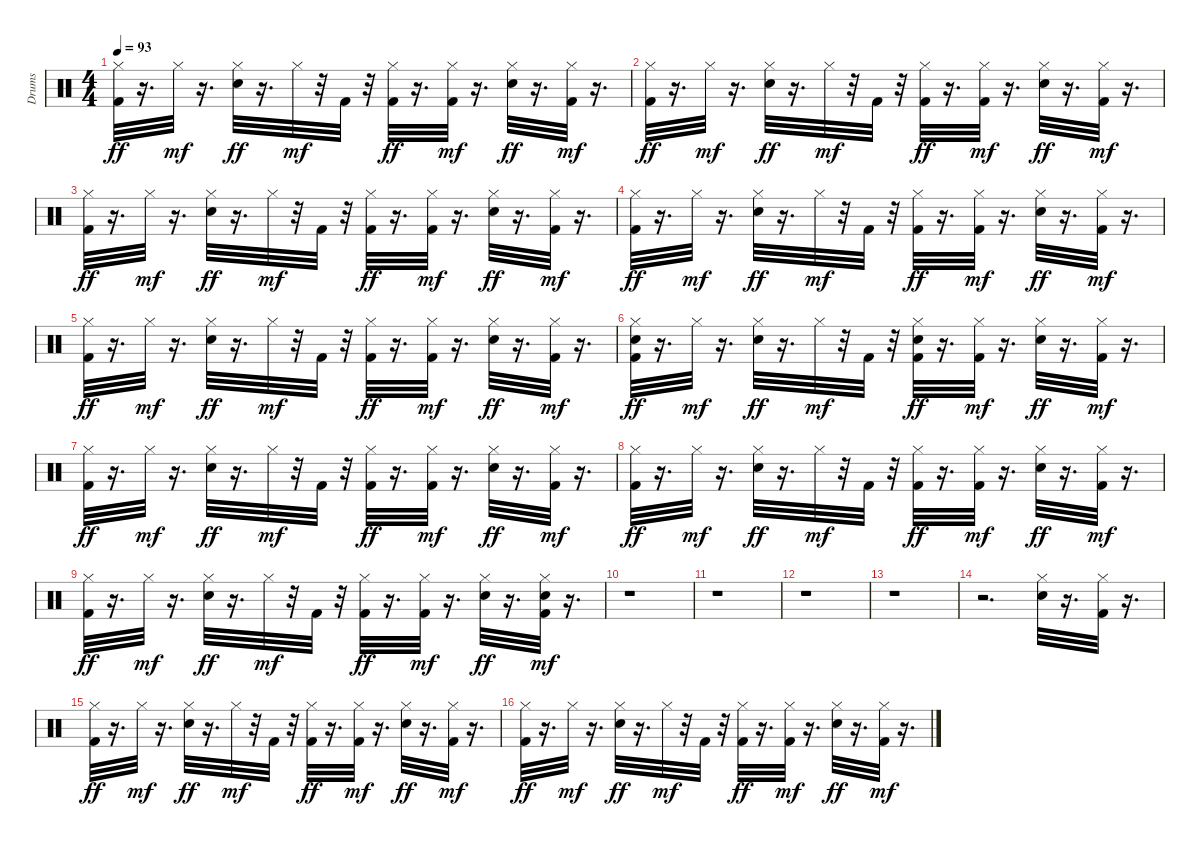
\track ("Drums" "Drums") {instrument percussion}
\staff {score}
\articulation defaults
\ts (4 4)
\tempo 93
\clef neutral
\ks c
("Kick (hit) 2" "Hi-Hat (closed)").32{dy ff} r.16{d} "Hi-Hat (closed)".32{dy mf} r.16{d} ("Snare (hit) 2" "Hi-Hat (closed)").32{dy ff} r.16{d} "Hi-Hat (closed)".32{dy mf} r.32 "Kick (hit) 2".32 r.32 ("Kick (hit) 2" "Hi-Hat (closed)").32{dy ff} r.16{d} ("Kick (hit) 2" "Hi-Hat (closed)").32{dy mf} r.16{d} ("Snare (hit) 2" "Hi-Hat (closed)").32{dy ff} r.16{d} ("Kick (hit) 2" "Hi-Hat (closed)").32{dy mf} r.16{d} |
("Kick (hit) 2" "Hi-Hat (closed)").32{dy ff} r.16{d} "Hi-Hat (closed)".32{dy mf} r.16{d} ("Snare (hit) 2" "Hi-Hat (closed)").32{dy ff} r.16{d} "Hi-Hat (closed)".32{dy mf} r.32 "Kick (hit) 2".32 r.32 ("Kick (hit) 2" "Hi-Hat (closed)").32{dy ff} r.16{d} ("Kick (hit) 2" "Hi-Hat (closed)").32{dy mf} r.16{d} ("Snare (hit) 2" "Hi-Hat (closed)").32{dy ff} r.16{d} ("Kick (hit) 2" "Hi-Hat (closed)").32{dy mf} r.16{d} |
("Kick (hit) 2" "Hi-Hat (closed)").32{dy ff} r.16{d} "Hi-Hat (closed)".32{dy mf} r.16{d} ("Snare (hit) 2" "Hi-Hat (closed)").32{dy ff} r.16{d} "Hi-Hat (closed)".32{dy mf} r.32 "Kick (hit) 2".32 r.32 ("Kick (hit) 2" "Hi-Hat (closed)").32{dy ff} r.16{d} ("Kick (hit) 2" "Hi-Hat (closed)").32{dy mf} r.16{d} ("Snare (hit) 2" "Hi-Hat (closed)").32{dy ff} r.16{d} ("Kick (hit) 2" "Hi-Hat (closed)").32{dy mf} r.16{d} |
("Kick (hit) 2" "Hi-Hat (closed)").32{dy ff} r.16{d} "Hi-Hat (closed)".32{dy mf} r.16{d} ("Snare (hit) 2" "Hi-Hat (closed)").32{dy ff} r.16{d} "Hi-Hat (closed)".32{dy mf} r.32 "Kick (hit) 2".32 r.32 ("Kick (hit) 2" "Hi-Hat (closed)").32{dy ff} r.16{d} ("Kick (hit) 2" "Hi-Hat (closed)").32{dy mf} r.16{d} ("Snare (hit) 2" "Hi-Hat (closed)").32{dy ff} r.16{d} ("Kick (hit) 2" "Hi-Hat (closed)").32{dy mf} r.16{d} |
("Kick (hit) 2" "Hi-Hat (closed)").32{dy ff} r.16{d} "Hi-Hat (closed)".32{dy mf} r.16{d} ("Snare (hit) 2" "Hi-Hat (closed)").32{dy ff} r.16{d} "Hi-Hat (closed)".32{dy mf} r.32 "Kick (hit) 2".32 r.32 ("Kick (hit) 2" "Hi-Hat (closed)").32{dy ff} r.16{d} ("Kick (hit) 2" "Hi-Hat (closed)").32{dy mf} r.16{d} ("Snare (hit) 2" "Hi-Hat (closed)").32{dy ff} r.16{d} ("Kick (hit) 2" "Hi-Hat (closed)").32{dy mf} r.16{d} |
("Kick (hit) 2" "Snare (hit) 2" "Hi-Hat (closed)").32{dy ff} r.16{d} "Hi-Hat (closed)".32{dy mf} r.16{d} ("Snare (hit) 2" "Hi-Hat (closed)").32{dy ff} r.16{d} "Hi-Hat (closed)".32{dy mf} r.32 "Kick (hit) 2".32 r.32 ("Kick (hit) 2" "Snare (hit) 2" "Hi-Hat (closed)").32{dy ff} r.16{d} ("Kick (hit) 2" "Hi-Hat (closed)").32{dy mf} r.16{d} ("Snare (hit) 2" "Hi-Hat (closed)").32{dy ff} r.16{d} ("Kick (hit) 2" "Hi-Hat (closed)").32{dy mf} r.16{d} |
("Kick (hit) 2" "Hi-Hat (closed)").32{dy ff} r.16{d} "Hi-Hat (closed)".32{dy mf} r.16{d} ("Snare (hit) 2" "Hi-Hat (closed)").32{dy ff} r.16{d} "Hi-Hat (closed)".32{dy mf} r.32 "Kick (hit) 2".32 r.32 ("Kick (hit) 2" "Hi-Hat (closed)").32{dy ff} r.16{d} ("Kick (hit) 2" "Hi-Hat (closed)").32{dy mf} r.16{d} ("Snare (hit) 2" "Hi-Hat (closed)").32{dy ff} r.16{d} ("Kick (hit) 2" "Hi-Hat (closed)").32{dy mf} r.16{d} |
("Kick (hit) 2" "Hi-Hat (closed)").32{dy ff} r.16{d} "Hi-Hat (closed)".32{dy mf} r.16{d} ("Snare (hit) 2" "Hi-Hat (closed)").32{dy ff} r.16{d} "Hi-Hat (closed)".32{dy mf} r.32 "Kick (hit) 2".32 r.32 ("Kick (hit) 2" "Hi-Hat (closed)").32{dy ff} r.16{d} ("Kick (hit) 2" "Hi-Hat (closed)").32{dy mf} r.16{d} ("Snare (hit) 2" "Hi-Hat (closed)").32{dy ff} r.16{d} ("Kick (hit) 2" "Hi-Hat (closed)").32{dy mf} r.16{d} |
("Kick (hit) 2" "Hi-Hat (closed)").32{dy ff} r.16{d} "Hi-Hat (closed)".32{dy mf} r.16{d} ("Snare (hit) 2" "Hi-Hat (closed)").32{dy ff} r.16{d} "Hi-Hat (closed)".32{dy mf} r.32 "Kick (hit) 2".32 r.32 ("Kick (hit) 2" "Hi-Hat (closed)").32{dy ff} r.16{d} ("Kick (hit) 2" "Hi-Hat (closed)").32{dy mf} r.16{d} ("Snare (hit) 2" "Hi-Hat (closed)").32{dy ff} r.16{d} ("Kick (hit) 2" "Snare (hit) 2" "Hi-Hat (closed)").32{dy mf} r.16{d} |
r.1 |
r.1 |
r.1 |
r.1 |
r.2{d} ("Snare (hit) 2" "Hi-Hat (closed)").32 r.16{d} ("Kick (hit) 2" "Hi-Hat (closed)").32 r.16{d} |
("Kick (hit) 2" "Hi-Hat (closed)").32{dy ff} r.16{d} "Hi-Hat (closed)".32{dy mf} r.16{d} ("Snare (hit) 2" "Hi-Hat (closed)").32{dy ff} r.16{d} "Hi-Hat (closed)".32{dy mf} r.32 "Kick (hit) 2".32 r.32 ("Kick (hit) 2" "Hi-Hat (closed)").32{dy ff} r.16{d} ("Kick (hit) 2" "Hi-Hat (closed)").32{dy mf} r.16{d} ("Snare (hit) 2" "Hi-Hat (closed)").32{dy ff} r.16{d} ("Kick (hit) 2" "Hi-Hat (closed)").32{dy mf} r.16{d} |
("Kick (hit) 2" "Hi-Hat (closed)").32{dy ff} r.16{d} "Hi-Hat (closed)".32{dy mf} r.16{d} ("Snare (hit) 2" "Hi-Hat (closed)").32{dy ff} r.16{d} "Hi-Hat (closed)".32{dy mf} r.32 "Kick (hit) 2".32 r.32 ("Kick (hit) 2" "Hi-Hat (closed)").32{dy ff} r.16{d} ("Kick (hit) 2" "Hi-Hat (closed)").32{dy mf} r.16{d} ("Snare (hit) 2" "Hi-Hat (closed)").32{dy ff} r.16{d} ("Kick (hit) 2" "Hi-Hat (closed)").32{dy mf} r.16{d}
